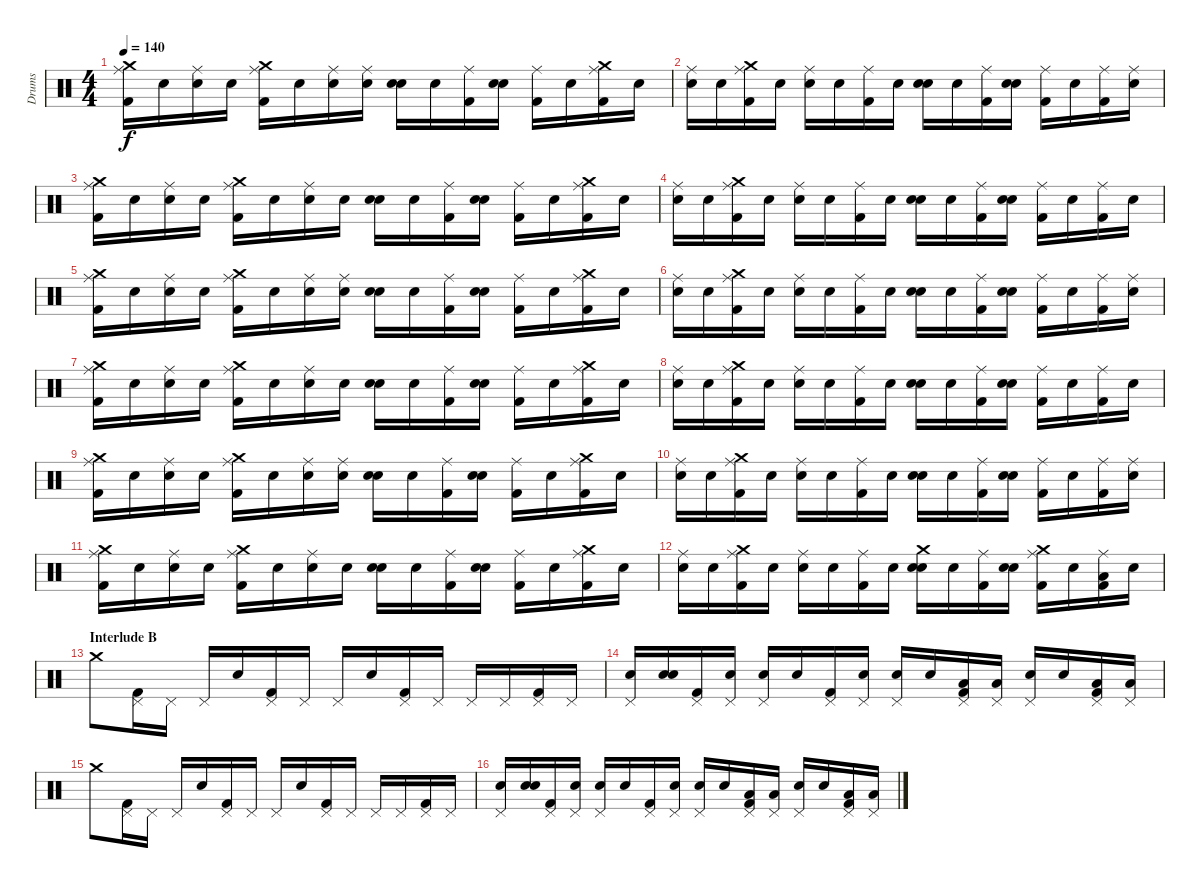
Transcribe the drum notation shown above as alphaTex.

\track ("Drums" "Drums") {instrument percussion}
\staff {score}
\articulation defaults
\ts (4 4)
\tempo 140
\clef neutral
\ks c
("Kick (hit) 2" "Ride (middle)" "Crash medium (hit)").16{dy f} "Snare (hit)".16 ("Snare (hit)" "Ride (middle)").16 "Snare (hit)".16 ("Kick (hit) 2" "Ride (middle)" "Crash medium (hit)").16 "Snare (hit)".16 ("Snare (hit)" "Ride (middle)").16 ("Snare (hit)" "Ride (middle)").16 ("Snare (hit)" "Electric Snare (hit)").16 "Snare (hit)".16 ("Kick (hit) 2" "Ride (middle)").16 ("Snare (hit)" "Electric Snare (hit)").16 ("Kick (hit) 2" "Ride (middle)").16 "Snare (hit)".16 ("Kick (hit) 2" "Ride (middle)" "Crash medium (hit)").16 "Snare (hit)".16 |
("Snare (hit)" "Ride (middle)").16 "Snare (hit)".16 ("Kick (hit) 2" "Ride (middle)" "Crash medium (hit)").16 "Snare (hit)".16 ("Snare (hit)" "Ride (middle)").16 "Snare (hit)".16 ("Kick (hit) 2" "Ride (middle)").16 "Snare (hit)".16 ("Snare (hit)" "Electric Snare (hit)").16 "Snare (hit)".16 ("Kick (hit) 2" "Ride (middle)").16 ("Snare (hit)" "Electric Snare (hit)").16 ("Kick (hit) 2" "Ride (middle)").16 "Snare (hit)".16 ("Kick (hit) 2" "Ride (middle)").16 ("Snare (hit)" "Ride (middle)").16 |
("Kick (hit) 2" "Ride (middle)" "Crash medium (hit)").16 "Snare (hit)".16 ("Snare (hit)" "Ride (middle)").16 "Snare (hit)".16 ("Kick (hit) 2" "Ride (middle)" "Crash medium (hit)").16 "Snare (hit)".16 ("Snare (hit)" "Ride (middle)").16 "Snare (hit)".16 ("Snare (hit)" "Electric Snare (hit)").16 "Snare (hit)".16 ("Kick (hit) 2" "Ride (middle)").16 ("Snare (hit)" "Electric Snare (hit)").16 ("Kick (hit) 2" "Ride (middle)").16 "Snare (hit)".16 ("Kick (hit) 2" "Ride (middle)" "Crash medium (hit)").16 "Snare (hit)".16 |
("Snare (hit)" "Ride (middle)").16 "Snare (hit)".16 ("Kick (hit) 2" "Ride (middle)" "Crash medium (hit)").16 "Snare (hit)".16 ("Snare (hit)" "Ride (middle)").16 "Snare (hit)".16 ("Kick (hit) 2" "Ride (middle)").16 "Snare (hit)".16 ("Snare (hit)" "Electric Snare (hit)").16 "Snare (hit)".16 ("Kick (hit) 2" "Ride (middle)").16 ("Snare (hit)" "Electric Snare (hit)").16 ("Kick (hit) 2" "Ride (middle)").16 "Snare (hit)".16 ("Kick (hit) 2" "Ride (middle)").16 "Snare (hit)".16 |
("Kick (hit) 2" "Ride (middle)" "Crash medium (hit)").16 "Snare (hit)".16 ("Snare (hit)" "Ride (middle)").16 "Snare (hit)".16 ("Kick (hit) 2" "Ride (middle)" "Crash medium (hit)").16 "Snare (hit)".16 ("Snare (hit)" "Ride (middle)").16 ("Snare (hit)" "Ride (middle)").16 ("Snare (hit)" "Electric Snare (hit)").16 "Snare (hit)".16 ("Kick (hit) 2" "Ride (middle)").16 ("Snare (hit)" "Electric Snare (hit)").16 ("Kick (hit) 2" "Ride (middle)").16 "Snare (hit)".16 ("Kick (hit) 2" "Ride (middle)" "Crash medium (hit)").16 "Snare (hit)".16 |
("Snare (hit)" "Ride (middle)").16 "Snare (hit)".16 ("Kick (hit) 2" "Ride (middle)" "Crash medium (hit)").16 "Snare (hit)".16 ("Snare (hit)" "Ride (middle)").16 "Snare (hit)".16 ("Kick (hit) 2" "Ride (middle)").16 "Snare (hit)".16 ("Snare (hit)" "Electric Snare (hit)").16 "Snare (hit)".16 ("Kick (hit) 2" "Ride (middle)").16 ("Snare (hit)" "Electric Snare (hit)").16 ("Kick (hit) 2" "Ride (middle)").16 "Snare (hit)".16 ("Kick (hit) 2" "Ride (middle)").16 ("Snare (hit)" "Ride (middle)").16 |
("Kick (hit) 2" "Ride (middle)" "Crash medium (hit)").16 "Snare (hit)".16 ("Snare (hit)" "Ride (middle)").16 "Snare (hit)".16 ("Kick (hit) 2" "Ride (middle)" "Crash medium (hit)").16 "Snare (hit)".16 ("Snare (hit)" "Ride (middle)").16 "Snare (hit)".16 ("Snare (hit)" "Electric Snare (hit)").16 "Snare (hit)".16 ("Kick (hit) 2" "Ride (middle)").16 ("Snare (hit)" "Electric Snare (hit)").16 ("Kick (hit) 2" "Ride (middle)").16 "Snare (hit)".16 ("Kick (hit) 2" "Ride (middle)" "Crash medium (hit)").16 "Snare (hit)".16 |
("Snare (hit)" "Ride (middle)").16 "Snare (hit)".16 ("Kick (hit) 2" "Ride (middle)" "Crash medium (hit)").16 "Snare (hit)".16 ("Snare (hit)" "Ride (middle)").16 "Snare (hit)".16 ("Kick (hit) 2" "Ride (middle)").16 "Snare (hit)".16 ("Snare (hit)" "Electric Snare (hit)").16 "Snare (hit)".16 ("Kick (hit) 2" "Ride (middle)").16 ("Snare (hit)" "Electric Snare (hit)").16 ("Kick (hit) 2" "Ride (middle)").16 "Snare (hit)".16 ("Kick (hit) 2" "Ride (middle)").16 "Snare (hit)".16 |
("Kick (hit) 2" "Ride (middle)" "Crash medium (hit)").16 "Snare (hit)".16 ("Snare (hit)" "Ride (middle)").16 "Snare (hit)".16 ("Kick (hit) 2" "Ride (middle)" "Crash medium (hit)").16 "Snare (hit)".16 ("Snare (hit)" "Ride (middle)").16 ("Snare (hit)" "Ride (middle)").16 ("Snare (hit)" "Electric Snare (hit)").16 "Snare (hit)".16 ("Kick (hit) 2" "Ride (middle)").16 ("Snare (hit)" "Electric Snare (hit)").16 ("Kick (hit) 2" "Ride (middle)").16 "Snare (hit)".16 ("Kick (hit) 2" "Ride (middle)" "Crash medium (hit)").16 "Snare (hit)".16 |
("Snare (hit)" "Ride (middle)").16 "Snare (hit)".16 ("Kick (hit) 2" "Ride (middle)" "Crash medium (hit)").16 "Snare (hit)".16 ("Snare (hit)" "Ride (middle)").16 "Snare (hit)".16 ("Kick (hit) 2" "Ride (middle)").16 "Snare (hit)".16 ("Snare (hit)" "Electric Snare (hit)").16 "Snare (hit)".16 ("Kick (hit) 2" "Ride (middle)").16 ("Snare (hit)" "Electric Snare (hit)").16 ("Kick (hit) 2" "Ride (middle)").16 "Snare (hit)".16 ("Kick (hit) 2" "Ride (middle)").16 ("Snare (hit)" "Ride (middle)").16 |
("Kick (hit) 2" "Ride (middle)" "Crash medium (hit)").16 "Snare (hit)".16 ("Snare (hit)" "Ride (middle)").16 "Snare (hit)".16 ("Kick (hit) 2" "Ride (middle)" "Crash medium (hit)").16 "Snare (hit)".16 ("Snare (hit)" "Ride (middle)").16 "Snare (hit)".16 ("Snare (hit)" "Electric Snare (hit)").16 "Snare (hit)".16 ("Kick (hit) 2" "Ride (middle)").16 ("Snare (hit)" "Electric Snare (hit)").16 ("Kick (hit) 2" "Ride (middle)").16 "Snare (hit)".16 ("Kick (hit) 2" "Ride (middle)" "Crash medium (hit)").16 "Snare (hit)".16 |
("Snare (hit)" "Ride (middle)").16 "Snare (hit)".16 ("Kick (hit) 2" "Ride (middle)" "Crash medium (hit)").16 "Snare (hit)".16 ("Snare (hit)" "Ride (middle)").16 "Snare (hit)".16 ("Kick (hit) 2" "Ride (middle)").16 "Snare (hit)".16 ("Snare (hit)" "Electric Snare (hit)" "Crash medium (hit)").16 "Snare (hit)".16 ("Kick (hit) 2" "Ride (middle)").16 ("Snare (hit)" "Electric Snare (hit)").16 ("Kick (hit) 2" "Ride (middle)" "Crash medium (hit)").16 "Snare (hit)".16 ("Kick (hit) 2" "Ride (middle)" "Low Tom (hit)").16 "Snare (hit)".16 |
\section ("" "Interlude B")
"Crash medium (hit)".8 ("Kick (hit) 2" "Pedal Hi-Hat (hit)").16 "Pedal Hi-Hat (hit)".16 "Pedal Hi-Hat (hit)".16 "Snare (hit)".16 ("Kick (hit) 2" "Pedal Hi-Hat (hit)").16 "Pedal Hi-Hat (hit)".16 "Pedal Hi-Hat (hit)".16 "Snare (hit)".16 ("Kick (hit) 2" "Pedal Hi-Hat (hit)").16 "Pedal Hi-Hat (hit)".16 "Pedal Hi-Hat (hit)".16 "Pedal Hi-Hat (hit)".16 ("Kick (hit) 2" "Pedal Hi-Hat (hit)").16 "Pedal Hi-Hat (hit)".16 |
("Snare (hit)" "Pedal Hi-Hat (hit)").16 ("Snare (hit)" "Snare (hit)").16 ("Kick (hit) 2" "Pedal Hi-Hat (hit)").16 ("Snare (hit)" "Pedal Hi-Hat (hit)").16 ("Snare (hit)" "Pedal Hi-Hat (hit)").16 "Snare (hit)".16 ("Kick (hit) 2" "Pedal Hi-Hat (hit)").16 ("Snare (hit)" "Pedal Hi-Hat (hit)").16 ("Electric Snare (hit)" "Pedal Hi-Hat (hit)").16 "Electric Snare (hit)".16 ("Kick (hit) 2" "Low Tom (hit)" "Pedal Hi-Hat (hit)").16 ("Low Tom (hit)" "Pedal Hi-Hat (hit)").16 ("Electric Snare (hit)" "Pedal Hi-Hat (hit)").16 "Electric Snare (hit)".16 ("Kick (hit) 2" "Low Tom (hit)" "Pedal Hi-Hat (hit)").16 ("Low Tom (hit)" "Pedal Hi-Hat (hit)").16 |
"Crash medium (hit)".8 ("Kick (hit) 2" "Pedal Hi-Hat (hit)").16 "Pedal Hi-Hat (hit)".16 "Pedal Hi-Hat (hit)".16 "Snare (hit)".16 ("Kick (hit) 2" "Pedal Hi-Hat (hit)").16 "Pedal Hi-Hat (hit)".16 "Pedal Hi-Hat (hit)".16 "Snare (hit)".16 ("Kick (hit) 2" "Pedal Hi-Hat (hit)").16 "Pedal Hi-Hat (hit)".16 "Pedal Hi-Hat (hit)".16 "Pedal Hi-Hat (hit)".16 ("Kick (hit) 2" "Pedal Hi-Hat (hit)").16 "Pedal Hi-Hat (hit)".16 |
("Snare (hit)" "Pedal Hi-Hat (hit)").16 ("Snare (hit)" "Snare (hit)").16 ("Kick (hit) 2" "Pedal Hi-Hat (hit)").16 ("Snare (hit)" "Pedal Hi-Hat (hit)").16 ("Snare (hit)" "Pedal Hi-Hat (hit)").16 "Snare (hit)".16 ("Kick (hit) 2" "Pedal Hi-Hat (hit)").16 ("Snare (hit)" "Pedal Hi-Hat (hit)").16 ("Electric Snare (hit)" "Pedal Hi-Hat (hit)").16 "Electric Snare (hit)".16 ("Kick (hit) 2" "Low Tom (hit)" "Pedal Hi-Hat (hit)").16 ("Low Tom (hit)" "Pedal Hi-Hat (hit)").16 ("Electric Snare (hit)" "Pedal Hi-Hat (hit)").16 "Electric Snare (hit)".16 ("Kick (hit) 2" "Low Tom (hit)" "Pedal Hi-Hat (hit)").16 ("Low Tom (hit)" "Pedal Hi-Hat (hit)").16
